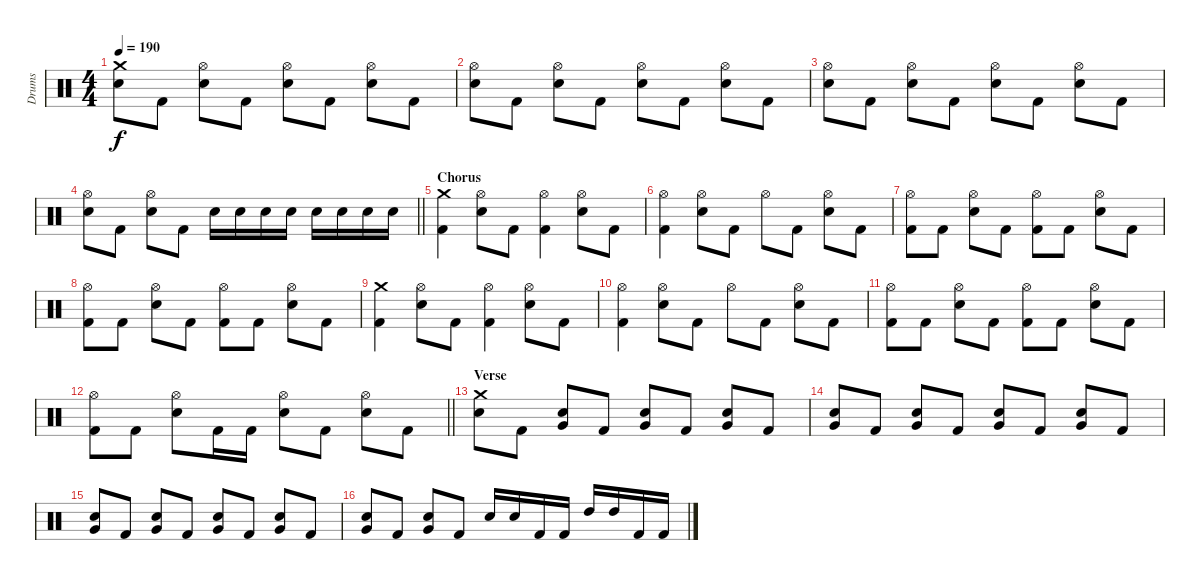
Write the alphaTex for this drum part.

\track ("Drums" "Drums") {instrument percussion}
\staff {score}
\articulation defaults
\ts (4 4)
\tempo 190
\clef neutral
\ks c
("Crash medium (hit)" "Snare (hit) 2").8{dy f} "Kick (hit) 2".8 ("Hi-Hat (open)" "Snare (hit) 2").8 "Kick (hit) 2".8 ("Hi-Hat (open)" "Snare (hit) 2").8 "Kick (hit) 2".8 ("Hi-Hat (open)" "Snare (hit) 2").8 "Kick (hit) 2".8 |
("Hi-Hat (open)" "Snare (hit) 2").8 "Kick (hit) 2".8 ("Hi-Hat (open)" "Snare (hit) 2").8 "Kick (hit) 2".8 ("Hi-Hat (open)" "Snare (hit) 2").8 "Kick (hit) 2".8 ("Hi-Hat (open)" "Snare (hit) 2").8 "Kick (hit) 2".8 |
("Hi-Hat (open)" "Snare (hit) 2").8 "Kick (hit) 2".8 ("Hi-Hat (open)" "Snare (hit) 2").8 "Kick (hit) 2".8 ("Hi-Hat (open)" "Snare (hit) 2").8 "Kick (hit) 2".8 ("Hi-Hat (open)" "Snare (hit) 2").8 "Kick (hit) 2".8 |
\barLineRight lightlight
("Hi-Hat (open)" "Snare (hit) 2").8 "Kick (hit) 2".8 ("Hi-Hat (open)" "Snare (hit) 2").8 "Kick (hit) 2".8 "Snare (hit) 2".16 "Snare (hit) 2".16 "Snare (hit) 2".16 "Snare (hit) 2".16 "Snare (hit) 2".16 "Snare (hit) 2".16 "Snare (hit) 2".16 "Snare (hit) 2".16 |
\section ("" "Chorus")
("Crash medium (hit)" "Kick (hit) 2").4 ("Hi-Hat (open)" "Snare (hit) 2").8 "Kick (hit) 2".8 ("Hi-Hat (open)" "Kick (hit) 2").4 ("Hi-Hat (open)" "Snare (hit) 2").8 "Kick (hit) 2".8 |
("Hi-Hat (open)" "Kick (hit) 2").4 ("Hi-Hat (open)" "Snare (hit) 2").8 "Kick (hit) 2".8 "Hi-Hat (open)".8 "Kick (hit) 2".8 ("Hi-Hat (open)" "Snare (hit) 2").8 "Kick (hit) 2".8 |
("Hi-Hat (open)" "Kick (hit) 2").8 "Kick (hit) 2".8 ("Hi-Hat (open)" "Snare (hit) 2").8 "Kick (hit) 2".8 ("Hi-Hat (open)" "Kick (hit) 2").8 "Kick (hit) 2".8 ("Hi-Hat (open)" "Snare (hit) 2").8 "Kick (hit) 2".8 |
("Hi-Hat (open)" "Kick (hit) 2").8 "Kick (hit) 2".8 ("Hi-Hat (open)" "Snare (hit) 2").8 "Kick (hit) 2".8 ("Hi-Hat (open)" "Kick (hit) 2").8 "Kick (hit) 2".8 ("Hi-Hat (open)" "Snare (hit) 2").8 "Kick (hit) 2".8 |
("Crash medium (hit)" "Kick (hit) 2").4 ("Hi-Hat (open)" "Snare (hit) 2").8 "Kick (hit) 2".8 ("Hi-Hat (open)" "Kick (hit) 2").4 ("Hi-Hat (open)" "Snare (hit) 2").8 "Kick (hit) 2".8 |
("Hi-Hat (open)" "Kick (hit) 2").4 ("Hi-Hat (open)" "Snare (hit) 2").8 "Kick (hit) 2".8 "Hi-Hat (open)".8 "Kick (hit) 2".8 ("Hi-Hat (open)" "Snare (hit) 2").8 "Kick (hit) 2".8 |
("Hi-Hat (open)" "Kick (hit) 2").8 "Kick (hit) 2".8 ("Hi-Hat (open)" "Snare (hit) 2").8 "Kick (hit) 2".8 ("Hi-Hat (open)" "Kick (hit) 2").8 "Kick (hit) 2".8 ("Hi-Hat (open)" "Snare (hit) 2").8 "Kick (hit) 2".8 |
\barLineRight lightlight
("Hi-Hat (open)" "Kick (hit) 2").8 "Kick (hit) 2".8 ("Hi-Hat (open)" "Snare (hit) 2").8 "Kick (hit) 2".16 "Kick (hit) 2".16 ("Hi-Hat (open)" "Snare (hit) 2").8 "Kick (hit) 2".8 ("Hi-Hat (open)" "Snare (hit) 2").8 "Kick (hit) 2".8 |
\section ("" "Verse")
("Crash medium (hit)" "Snare (hit) 2").8 "Kick (hit) 2".8 ("Snare (hit) 2" "Very Low Tom (hit)").8 "Kick (hit) 2".8 ("Snare (hit) 2" "Very Low Tom (hit)").8 "Kick (hit) 2".8 ("Snare (hit) 2" "Very Low Tom (hit)").8 "Kick (hit) 2".8 |
("Snare (hit) 2" "Very Low Tom (hit)").8 "Kick (hit) 2".8 ("Snare (hit) 2" "Very Low Tom (hit)").8 "Kick (hit) 2".8 ("Snare (hit) 2" "Very Low Tom (hit)").8 "Kick (hit) 2".8 ("Snare (hit) 2" "Very Low Tom (hit)").8 "Kick (hit) 2".8 |
("Snare (hit) 2" "Very Low Tom (hit)").8 "Kick (hit) 2".8 ("Snare (hit) 2" "Very Low Tom (hit)").8 "Kick (hit) 2".8 ("Snare (hit) 2" "Very Low Tom (hit)").8 "Kick (hit) 2".8 ("Snare (hit) 2" "Very Low Tom (hit)").8 "Kick (hit) 2".8 |
("Snare (hit) 2" "Very Low Tom (hit)").8 "Kick (hit) 2".8 ("Snare (hit) 2" "Very Low Tom (hit)").8 "Kick (hit) 2".8 "Snare (hit) 2".16 "Snare (hit) 2".16 "Kick (hit) 2".16 "Kick (hit) 2".16 "High Tom (hit)".16 "High Tom (hit)".16 "Kick (hit) 2".16 "Kick (hit) 2".16
